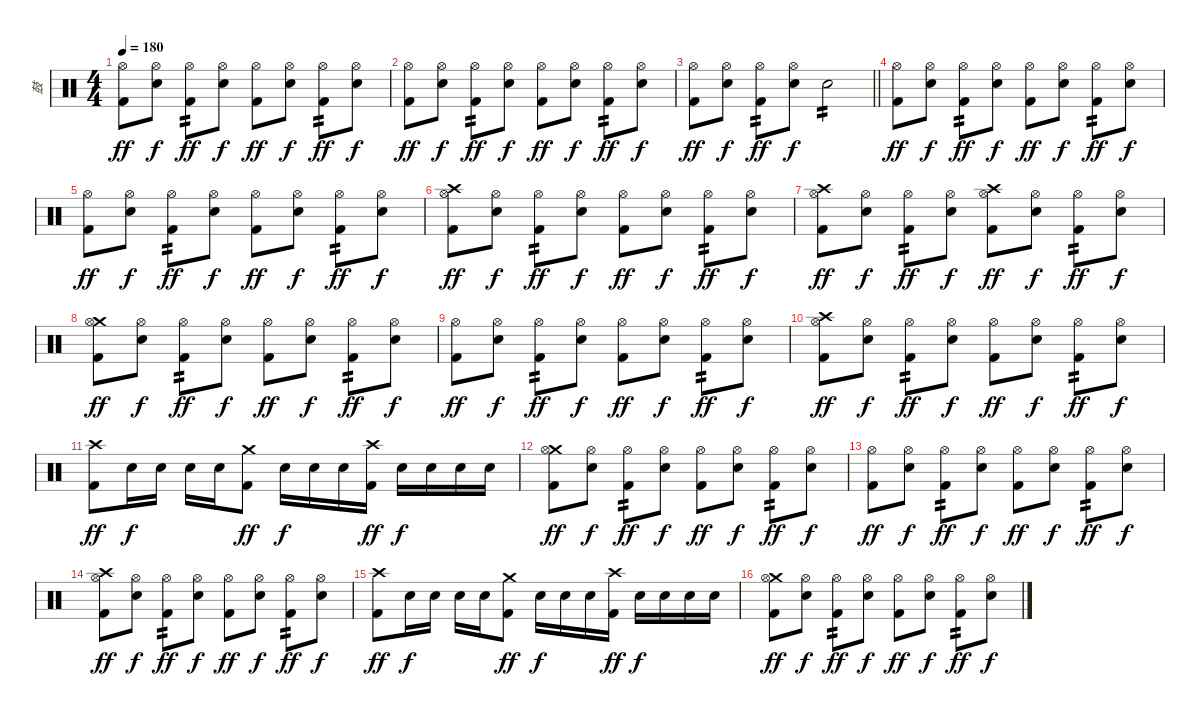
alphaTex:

\track ("鼓" "鼓") {instrument percussion}
\staff {score}
\articulation defaults
\ts (4 4)
\tempo 180
\clef neutral
\ks c
("Hi-Hat (open)" "Kick (hit) 2").8{dy ff} ("Hi-Hat (open)" "Snare (hit) 2").8{dy f} ("Hi-Hat (open)" "Kick (hit) 2").8{tp 2 dy ff} ("Hi-Hat (open)" "Snare (hit) 2").8{dy f} ("Hi-Hat (open)" "Kick (hit) 2").8{dy ff} ("Hi-Hat (open)" "Snare (hit) 2").8{dy f} ("Hi-Hat (open)" "Kick (hit) 2").8{tp 2 dy ff} ("Hi-Hat (open)" "Snare (hit) 2").8{dy f} |
("Hi-Hat (open)" "Kick (hit) 2").8{dy ff} ("Hi-Hat (open)" "Snare (hit) 2").8{dy f} ("Hi-Hat (open)" "Kick (hit) 2").8{tp 2 dy ff} ("Hi-Hat (open)" "Snare (hit) 2").8{dy f} ("Hi-Hat (open)" "Kick (hit) 2").8{dy ff} ("Hi-Hat (open)" "Snare (hit) 2").8{dy f} ("Hi-Hat (open)" "Kick (hit) 2").8{tp 2 dy ff} ("Hi-Hat (open)" "Snare (hit) 2").8{dy f} |
\barLineRight lightlight
("Hi-Hat (open)" "Kick (hit) 2").8{dy ff} ("Hi-Hat (open)" "Snare (hit) 2").8{dy f} ("Hi-Hat (open)" "Kick (hit) 2").8{tp 2 dy ff} ("Hi-Hat (open)" "Snare (hit) 2").8{dy f} "Snare (hit) 2".2{tp 2} |
("Hi-Hat (open)" "Kick (hit) 2").8{dy ff} ("Hi-Hat (open)" "Snare (hit) 2").8{dy f} ("Hi-Hat (open)" "Kick (hit) 2").8{tp 2 dy ff} ("Hi-Hat (open)" "Snare (hit) 2").8{dy f} ("Hi-Hat (open)" "Kick (hit) 2").8{dy ff} ("Hi-Hat (open)" "Snare (hit) 2").8{dy f} ("Hi-Hat (open)" "Kick (hit) 2").8{tp 2 dy ff} ("Hi-Hat (open)" "Snare (hit) 2").8{dy f} |
("Hi-Hat (open)" "Kick (hit) 2").8{dy ff} ("Hi-Hat (open)" "Snare (hit) 2").8{dy f} ("Hi-Hat (open)" "Kick (hit) 2").8{tp 2 dy ff} ("Hi-Hat (open)" "Snare (hit) 2").8{dy f} ("Hi-Hat (open)" "Kick (hit) 2").8{dy ff} ("Hi-Hat (open)" "Snare (hit) 2").8{dy f} ("Hi-Hat (open)" "Kick (hit) 2").8{tp 2 dy ff} ("Hi-Hat (open)" "Snare (hit) 2").8{dy f} |
("Crash high (hit)" "Hi-Hat (open)" "Kick (hit) 2").8{dy ff} ("Hi-Hat (open)" "Snare (hit) 2").8{dy f} ("Hi-Hat (open)" "Kick (hit) 2").8{tp 2 dy ff} ("Hi-Hat (open)" "Snare (hit) 2").8{dy f} ("Hi-Hat (open)" "Kick (hit) 2").8{dy ff} ("Hi-Hat (open)" "Snare (hit) 2").8{dy f} ("Hi-Hat (open)" "Kick (hit) 2").8{tp 2 dy ff} ("Hi-Hat (open)" "Snare (hit) 2").8{dy f} |
("Crash high (hit)" "Hi-Hat (open)" "Kick (hit) 2").8{dy ff} ("Hi-Hat (open)" "Snare (hit) 2").8{dy f} ("Hi-Hat (open)" "Kick (hit) 2").8{tp 2 dy ff} ("Hi-Hat (open)" "Snare (hit) 2").8{dy f} ("Crash high (hit)" "Hi-Hat (open)" "Kick (hit) 2").8{dy ff} ("Hi-Hat (open)" "Snare (hit) 2").8{dy f} ("Hi-Hat (open)" "Kick (hit) 2").8{tp 2 dy ff} ("Hi-Hat (open)" "Snare (hit) 2").8{dy f} |
("Crash medium (hit)" "Hi-Hat (open)" "Kick (hit) 2").8{dy ff} ("Hi-Hat (open)" "Snare (hit) 2").8{dy f} ("Hi-Hat (open)" "Kick (hit) 2").8{tp 2 dy ff} ("Hi-Hat (open)" "Snare (hit) 2").8{dy f} ("Hi-Hat (open)" "Kick (hit) 2").8{dy ff} ("Hi-Hat (open)" "Snare (hit) 2").8{dy f} ("Hi-Hat (open)" "Kick (hit) 2").8{tp 2 dy ff} ("Hi-Hat (open)" "Snare (hit) 2").8{dy f} |
("Hi-Hat (open)" "Kick (hit) 2").8{dy ff} ("Hi-Hat (open)" "Snare (hit) 2").8{dy f} ("Hi-Hat (open)" "Kick (hit) 2").8{tp 2 dy ff} ("Hi-Hat (open)" "Snare (hit) 2").8{dy f} ("Hi-Hat (open)" "Kick (hit) 2").8{dy ff} ("Hi-Hat (open)" "Snare (hit) 2").8{dy f} ("Hi-Hat (open)" "Kick (hit) 2").8{tp 2 dy ff} ("Hi-Hat (open)" "Snare (hit) 2").8{dy f} |
("Crash high (hit)" "Hi-Hat (open)" "Kick (hit) 2").8{dy ff} ("Hi-Hat (open)" "Snare (hit) 2").8{dy f} ("Hi-Hat (open)" "Kick (hit) 2").8{tp 2 dy ff} ("Hi-Hat (open)" "Snare (hit) 2").8{dy f} ("Hi-Hat (open)" "Kick (hit) 2").8{dy ff} ("Hi-Hat (open)" "Snare (hit) 2").8{dy f} ("Hi-Hat (open)" "Kick (hit) 2").8{tp 2 dy ff} ("Hi-Hat (open)" "Snare (hit) 2").8{dy f} |
("Crash high (hit)" "Kick (hit) 2").8{dy ff} "Snare (hit) 2".16{dy f} "Snare (hit) 2".16 "Snare (hit) 2".16 "Snare (hit) 2".16 ("Crash medium (hit)" "Kick (hit) 2").8{dy ff} "Snare (hit) 2".16{dy f} "Snare (hit) 2".16 "Snare (hit) 2".16 ("Crash high (hit)" "Kick (hit) 2").16{dy ff} "Snare (hit) 2".16{dy f} "Snare (hit) 2".16 "Snare (hit) 2".16 "Snare (hit) 2".16 |
("Crash medium (hit)" "Hi-Hat (open)" "Kick (hit) 2").8{dy ff} ("Hi-Hat (open)" "Snare (hit) 2").8{dy f} ("Hi-Hat (open)" "Kick (hit) 2").8{tp 2 dy ff} ("Hi-Hat (open)" "Snare (hit) 2").8{dy f} ("Hi-Hat (open)" "Kick (hit) 2").8{dy ff} ("Hi-Hat (open)" "Snare (hit) 2").8{dy f} ("Hi-Hat (open)" "Kick (hit) 2").8{tp 2 dy ff} ("Hi-Hat (open)" "Snare (hit) 2").8{dy f} |
("Hi-Hat (open)" "Kick (hit) 2").8{dy ff} ("Hi-Hat (open)" "Snare (hit) 2").8{dy f} ("Hi-Hat (open)" "Kick (hit) 2").8{tp 2 dy ff} ("Hi-Hat (open)" "Snare (hit) 2").8{dy f} ("Hi-Hat (open)" "Kick (hit) 2").8{dy ff} ("Hi-Hat (open)" "Snare (hit) 2").8{dy f} ("Hi-Hat (open)" "Kick (hit) 2").8{tp 2 dy ff} ("Hi-Hat (open)" "Snare (hit) 2").8{dy f} |
("Crash high (hit)" "Hi-Hat (open)" "Kick (hit) 2").8{dy ff} ("Hi-Hat (open)" "Snare (hit) 2").8{dy f} ("Hi-Hat (open)" "Kick (hit) 2").8{tp 2 dy ff} ("Hi-Hat (open)" "Snare (hit) 2").8{dy f} ("Hi-Hat (open)" "Kick (hit) 2").8{dy ff} ("Hi-Hat (open)" "Snare (hit) 2").8{dy f} ("Hi-Hat (open)" "Kick (hit) 2").8{tp 2 dy ff} ("Hi-Hat (open)" "Snare (hit) 2").8{dy f} |
("Crash high (hit)" "Kick (hit) 2").8{dy ff} "Snare (hit) 2".16{dy f} "Snare (hit) 2".16 "Snare (hit) 2".16 "Snare (hit) 2".16 ("Crash medium (hit)" "Kick (hit) 2").8{dy ff} "Snare (hit) 2".16{dy f} "Snare (hit) 2".16 "Snare (hit) 2".16 ("Crash high (hit)" "Kick (hit) 2").16{dy ff} "Snare (hit) 2".16{dy f} "Snare (hit) 2".16 "Snare (hit) 2".16 "Snare (hit) 2".16 |
("Crash medium (hit)" "Hi-Hat (open)" "Kick (hit) 2").8{dy ff} ("Hi-Hat (open)" "Snare (hit) 2").8{dy f} ("Hi-Hat (open)" "Kick (hit) 2").8{tp 2 dy ff} ("Hi-Hat (open)" "Snare (hit) 2").8{dy f} ("Hi-Hat (open)" "Kick (hit) 2").8{dy ff} ("Hi-Hat (open)" "Snare (hit) 2").8{dy f} ("Hi-Hat (open)" "Kick (hit) 2").8{tp 2 dy ff} ("Hi-Hat (open)" "Snare (hit) 2").8{dy f}
